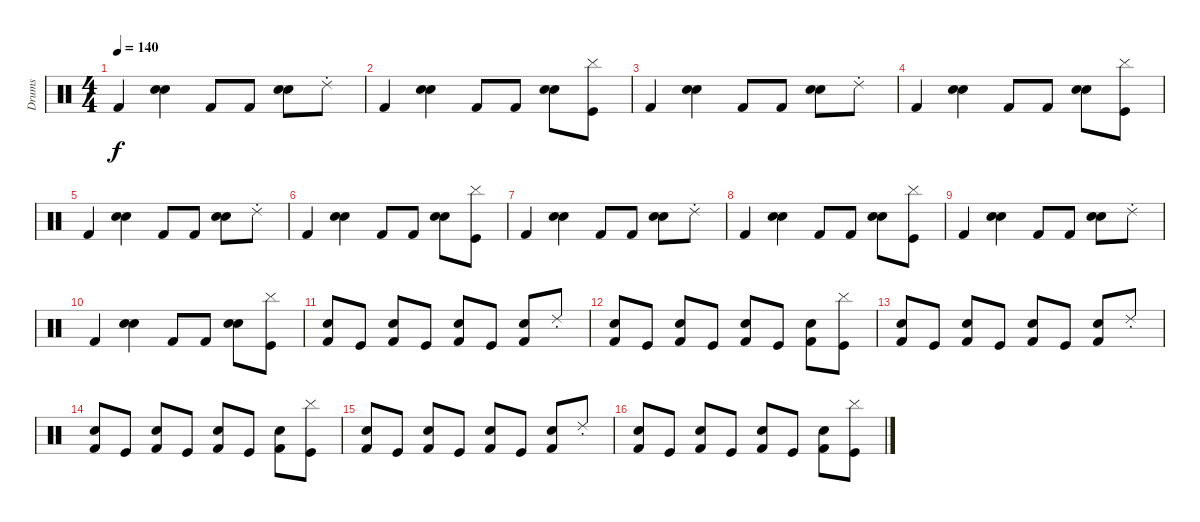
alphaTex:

\track ("Drums" "Drums") {instrument percussion}
\staff {score}
\articulation defaults
\ts (4 4)
\tempo 140
\clef neutral
\ks c "Kick (hit) 2".4{dy f}
("Hand Clap (hit)" "Electric Snare (hit)").4 "Kick (hit) 2".8 "Kick (hit) 2".8 ("Hand Clap (hit)" "Electric Snare (hit)").8 "Ride (choke) 2".8 |
"Kick (hit) 2".4 ("Hand Clap (hit)" "Electric Snare (hit)").4 "Kick (hit) 2".8 "Kick (hit) 2".8 ("Hand Clap (hit)" "Electric Snare (hit)").8 ("Kick (hit)" "Cymbal (hit)").8 |
"Kick (hit) 2".4 ("Hand Clap (hit)" "Electric Snare (hit)").4 "Kick (hit) 2".8 "Kick (hit) 2".8 ("Hand Clap (hit)" "Electric Snare (hit)").8 "Ride (choke) 2".8 |
"Kick (hit) 2".4 ("Hand Clap (hit)" "Electric Snare (hit)").4 "Kick (hit) 2".8 "Kick (hit) 2".8 ("Hand Clap (hit)" "Electric Snare (hit)").8 ("Kick (hit)" "Cymbal (hit)").8 |
"Kick (hit) 2".4 ("Hand Clap (hit)" "Electric Snare (hit)").4 "Kick (hit) 2".8 "Kick (hit) 2".8 ("Hand Clap (hit)" "Electric Snare (hit)").8 "Ride (choke) 2".8 |
"Kick (hit) 2".4 ("Hand Clap (hit)" "Electric Snare (hit)").4 "Kick (hit) 2".8 "Kick (hit) 2".8 ("Hand Clap (hit)" "Electric Snare (hit)").8 ("Kick (hit)" "Cymbal (hit)").8 |
"Kick (hit) 2".4 ("Hand Clap (hit)" "Electric Snare (hit)").4 "Kick (hit) 2".8 "Kick (hit) 2".8 ("Hand Clap (hit)" "Electric Snare (hit)").8 "Ride (choke) 2".8 |
"Kick (hit) 2".4 ("Hand Clap (hit)" "Electric Snare (hit)").4 "Kick (hit) 2".8 "Kick (hit) 2".8 ("Hand Clap (hit)" "Electric Snare (hit)").8 ("Kick (hit)" "Cymbal (hit)").8 |
"Kick (hit) 2".4 ("Hand Clap (hit)" "Electric Snare (hit)").4 "Kick (hit) 2".8 "Kick (hit) 2".8 ("Hand Clap (hit)" "Electric Snare (hit)").8 "Ride (choke) 2".8 |
"Kick (hit) 2".4 ("Hand Clap (hit)" "Electric Snare (hit)").4 "Kick (hit) 2".8 "Kick (hit) 2".8 ("Hand Clap (hit)" "Electric Snare (hit)").8 ("Kick (hit)" "Cymbal (hit)").8 |
("Kick (hit) 2" "Hand Clap (hit)").8 "Kick (hit)".8 ("Kick (hit) 2" "Hand Clap (hit)").8 "Kick (hit)".8 ("Kick (hit) 2" "Hand Clap (hit)").8 "Kick (hit)".8 ("Kick (hit) 2" "Hand Clap (hit)").8 "Ride (choke) 2".8 |
("Kick (hit) 2" "Hand Clap (hit)").8 "Kick (hit)".8 ("Kick (hit) 2" "Hand Clap (hit)").8 "Kick (hit)".8 ("Kick (hit) 2" "Hand Clap (hit)").8 "Kick (hit)".8 ("Kick (hit) 2" "Hand Clap (hit)").8 ("Kick (hit)" "Cymbal (hit)").8 |
("Kick (hit) 2" "Hand Clap (hit)").8 "Kick (hit)".8 ("Kick (hit) 2" "Hand Clap (hit)").8 "Kick (hit)".8 ("Kick (hit) 2" "Hand Clap (hit)").8 "Kick (hit)".8 ("Kick (hit) 2" "Hand Clap (hit)").8 "Ride (choke) 2".8 |
("Kick (hit) 2" "Hand Clap (hit)").8 "Kick (hit)".8 ("Kick (hit) 2" "Hand Clap (hit)").8 "Kick (hit)".8 ("Kick (hit) 2" "Hand Clap (hit)").8 "Kick (hit)".8 ("Kick (hit) 2" "Hand Clap (hit)").8 ("Kick (hit)" "Cymbal (hit)").8 |
("Kick (hit) 2" "Hand Clap (hit)").8 "Kick (hit)".8 ("Kick (hit) 2" "Hand Clap (hit)").8 "Kick (hit)".8 ("Kick (hit) 2" "Hand Clap (hit)").8 "Kick (hit)".8 ("Kick (hit) 2" "Hand Clap (hit)").8 "Ride (choke) 2".8 |
("Kick (hit) 2" "Hand Clap (hit)").8 "Kick (hit)".8 ("Kick (hit) 2" "Hand Clap (hit)").8 "Kick (hit)".8 ("Kick (hit) 2" "Hand Clap (hit)").8 "Kick (hit)".8 ("Kick (hit) 2" "Hand Clap (hit)").8 ("Kick (hit)" "Cymbal (hit)").8
